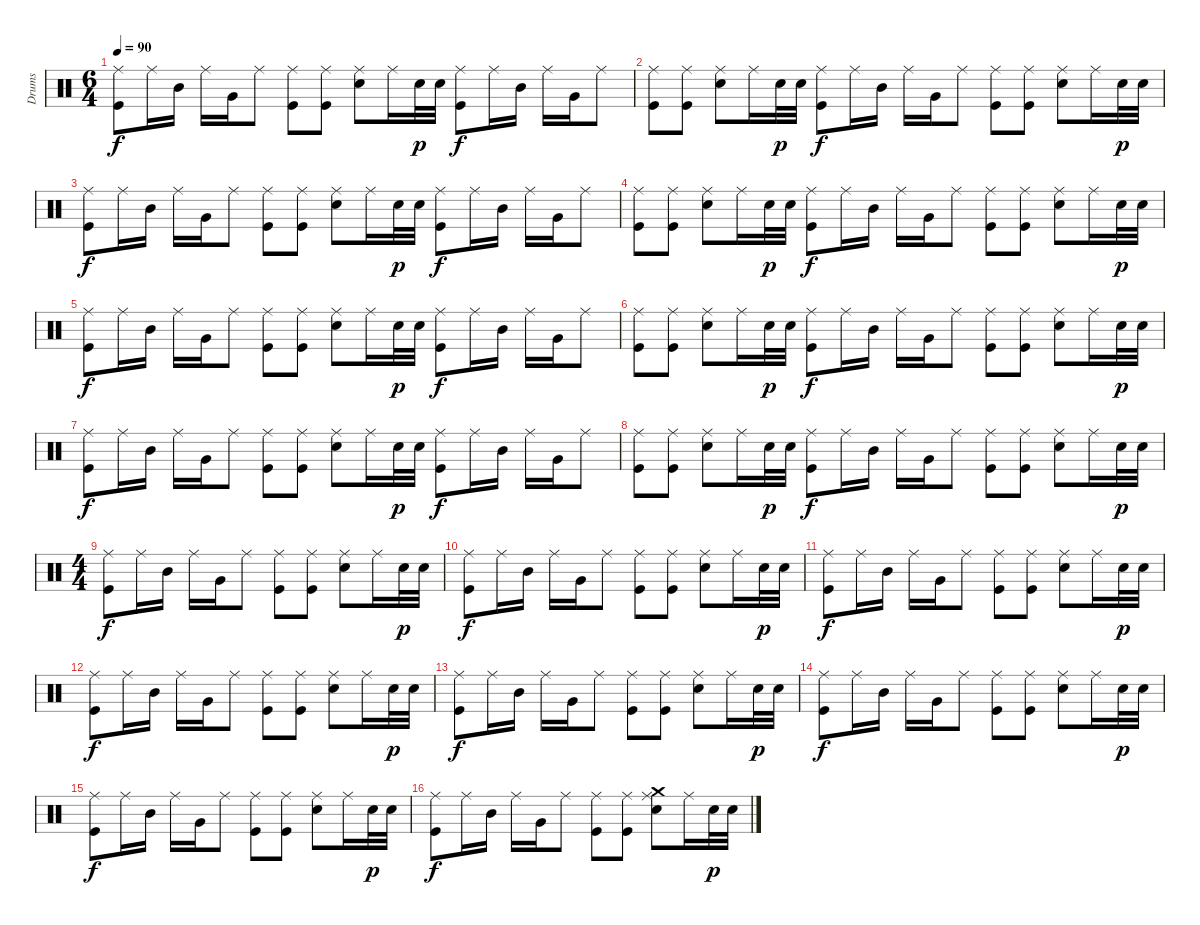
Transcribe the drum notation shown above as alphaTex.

\track ("Drums" "Drums") {instrument percussion}
\staff {score}
\articulation defaults
\ts (6 4)
\tempo 90
\clef neutral
\ks c
("Ride (middle)" "Kick (hit)").8{dy f volume 5} "Ride (middle)".16 "Mid Tom (hit)".16 "Ride (middle)".16 "Very Low Tom (hit)".16 "Ride (middle)".8 ("Ride (middle)" "Kick (hit)").8 ("Ride (middle)" "Kick (hit)").8 ("Ride (middle)" "Snare (hit) 2").8 "Ride (middle)".16 "Snare (hit) 2".32{dy p} "Snare (hit) 2".32 ("Ride (middle)" "Kick (hit)").8{dy f} "Ride (middle)".16 "Mid Tom (hit)".16 "Ride (middle)".16 "Very Low Tom (hit)".16 "Ride (middle)".8 |
("Ride (middle)" "Kick (hit)").8 ("Ride (middle)" "Kick (hit)").8 ("Ride (middle)" "Snare (hit) 2").8 "Ride (middle)".16 "Snare (hit) 2".32{dy p} "Snare (hit) 2".32 ("Ride (middle)" "Kick (hit)").8{dy f} "Ride (middle)".16 "Mid Tom (hit)".16 "Ride (middle)".16 "Very Low Tom (hit)".16 "Ride (middle)".8 ("Ride (middle)" "Kick (hit)").8 ("Ride (middle)" "Kick (hit)").8 ("Ride (middle)" "Snare (hit) 2").8 "Ride (middle)".16 "Snare (hit) 2".32{dy p} "Snare (hit) 2".32 |
("Ride (middle)" "Kick (hit)").8{dy f volume 13} "Ride (middle)".16 "Mid Tom (hit)".16 "Ride (middle)".16 "Very Low Tom (hit)".16 "Ride (middle)".8 ("Ride (middle)" "Kick (hit)").8 ("Ride (middle)" "Kick (hit)").8 ("Ride (middle)" "Snare (hit) 2").8 "Ride (middle)".16 "Snare (hit) 2".32{dy p} "Snare (hit) 2".32 ("Ride (middle)" "Kick (hit)").8{dy f} "Ride (middle)".16 "Mid Tom (hit)".16 "Ride (middle)".16 "Very Low Tom (hit)".16 "Ride (middle)".8 |
("Ride (middle)" "Kick (hit)").8 ("Ride (middle)" "Kick (hit)").8 ("Ride (middle)" "Snare (hit) 2").8 "Ride (middle)".16 "Snare (hit) 2".32{dy p} "Snare (hit) 2".32 ("Ride (middle)" "Kick (hit)").8{dy f} "Ride (middle)".16 "Mid Tom (hit)".16 "Ride (middle)".16 "Very Low Tom (hit)".16 "Ride (middle)".8 ("Ride (middle)" "Kick (hit)").8 ("Ride (middle)" "Kick (hit)").8 ("Ride (middle)" "Snare (hit) 2").8 "Ride (middle)".16 "Snare (hit) 2".32{dy p} "Snare (hit) 2".32 |
("Ride (middle)" "Kick (hit)").8{dy f} "Ride (middle)".16 "Mid Tom (hit)".16 "Ride (middle)".16 "Very Low Tom (hit)".16 "Ride (middle)".8 ("Ride (middle)" "Kick (hit)").8 ("Ride (middle)" "Kick (hit)").8 ("Ride (middle)" "Snare (hit) 2").8 "Ride (middle)".16 "Snare (hit) 2".32{dy p} "Snare (hit) 2".32 ("Ride (middle)" "Kick (hit)").8{dy f} "Ride (middle)".16 "Mid Tom (hit)".16 "Ride (middle)".16 "Very Low Tom (hit)".16 "Ride (middle)".8 |
("Ride (middle)" "Kick (hit)").8 ("Ride (middle)" "Kick (hit)").8 ("Ride (middle)" "Snare (hit) 2").8 "Ride (middle)".16 "Snare (hit) 2".32{dy p} "Snare (hit) 2".32 ("Ride (middle)" "Kick (hit)").8{dy f} "Ride (middle)".16 "Mid Tom (hit)".16 "Ride (middle)".16 "Very Low Tom (hit)".16 "Ride (middle)".8 ("Ride (middle)" "Kick (hit)").8 ("Ride (middle)" "Kick (hit)").8 ("Ride (middle)" "Snare (hit) 2").8 "Ride (middle)".16 "Snare (hit) 2".32{dy p} "Snare (hit) 2".32 |
("Ride (middle)" "Kick (hit)").8{dy f} "Ride (middle)".16 "Mid Tom (hit)".16 "Ride (middle)".16 "Very Low Tom (hit)".16 "Ride (middle)".8 ("Ride (middle)" "Kick (hit)").8 ("Ride (middle)" "Kick (hit)").8 ("Ride (middle)" "Snare (hit) 2").8 "Ride (middle)".16 "Snare (hit) 2".32{dy p} "Snare (hit) 2".32 ("Ride (middle)" "Kick (hit)").8{dy f} "Ride (middle)".16 "Mid Tom (hit)".16 "Ride (middle)".16 "Very Low Tom (hit)".16 "Ride (middle)".8 |
("Ride (middle)" "Kick (hit)").8 ("Ride (middle)" "Kick (hit)").8 ("Ride (middle)" "Snare (hit) 2").8 "Ride (middle)".16 "Snare (hit) 2".32{dy p} "Snare (hit) 2".32 ("Ride (middle)" "Kick (hit)").8{dy f} "Ride (middle)".16 "Mid Tom (hit)".16 "Ride (middle)".16 "Very Low Tom (hit)".16 "Ride (middle)".8 ("Ride (middle)" "Kick (hit)").8 ("Ride (middle)" "Kick (hit)").8 ("Ride (middle)" "Snare (hit) 2").8 "Ride (middle)".16 "Snare (hit) 2".32{dy p} "Snare (hit) 2".32 |
\ts (4 4)
("Ride (middle)" "Kick (hit)").8{dy f} "Ride (middle)".16 "Mid Tom (hit)".16 "Ride (middle)".16 "Very Low Tom (hit)".16 "Ride (middle)".8 ("Ride (middle)" "Kick (hit)").8 ("Ride (middle)" "Kick (hit)").8 ("Ride (middle)" "Snare (hit) 2").8 "Ride (middle)".16 "Snare (hit) 2".32{dy p} "Snare (hit) 2".32 |
("Ride (middle)" "Kick (hit)").8{dy f} "Ride (middle)".16 "Mid Tom (hit)".16 "Ride (middle)".16 "Very Low Tom (hit)".16 "Ride (middle)".8 ("Ride (middle)" "Kick (hit)").8 ("Ride (middle)" "Kick (hit)").8 ("Ride (middle)" "Snare (hit) 2").8 "Ride (middle)".16 "Snare (hit) 2".32{dy p} "Snare (hit) 2".32 |
("Ride (middle)" "Kick (hit)").8{dy f} "Ride (middle)".16 "Mid Tom (hit)".16 "Ride (middle)".16 "Very Low Tom (hit)".16 "Ride (middle)".8 ("Ride (middle)" "Kick (hit)").8 ("Ride (middle)" "Kick (hit)").8 ("Ride (middle)" "Snare (hit) 2").8 "Ride (middle)".16 "Snare (hit) 2".32{dy p} "Snare (hit) 2".32 |
("Ride (middle)" "Kick (hit)").8{dy f} "Ride (middle)".16 "Mid Tom (hit)".16 "Ride (middle)".16 "Very Low Tom (hit)".16 "Ride (middle)".8 ("Ride (middle)" "Kick (hit)").8 ("Ride (middle)" "Kick (hit)").8 ("Ride (middle)" "Snare (hit) 2").8 "Ride (middle)".16 "Snare (hit) 2".32{dy p} "Snare (hit) 2".32 |
("Ride (middle)" "Kick (hit)").8{dy f} "Ride (middle)".16 "Mid Tom (hit)".16 "Ride (middle)".16 "Very Low Tom (hit)".16 "Ride (middle)".8 ("Ride (middle)" "Kick (hit)").8 ("Ride (middle)" "Kick (hit)").8 ("Ride (middle)" "Snare (hit) 2").8 "Ride (middle)".16 "Snare (hit) 2".32{dy p} "Snare (hit) 2".32 |
("Ride (middle)" "Kick (hit)").8{dy f} "Ride (middle)".16 "Mid Tom (hit)".16 "Ride (middle)".16 "Very Low Tom (hit)".16 "Ride (middle)".8 ("Ride (middle)" "Kick (hit)").8 ("Ride (middle)" "Kick (hit)").8 ("Ride (middle)" "Snare (hit) 2").8 "Ride (middle)".16 "Snare (hit) 2".32{dy p} "Snare (hit) 2".32 |
("Ride (middle)" "Kick (hit)").8{dy f} "Ride (middle)".16 "Mid Tom (hit)".16 "Ride (middle)".16 "Very Low Tom (hit)".16 "Ride (middle)".8 ("Ride (middle)" "Kick (hit)").8 ("Ride (middle)" "Kick (hit)").8 ("Ride (middle)" "Snare (hit) 2").8 "Ride (middle)".16 "Snare (hit) 2".32{dy p} "Snare (hit) 2".32 |
("Ride (middle)" "Kick (hit)").8{dy f} "Ride (middle)".16 "Mid Tom (hit)".16 "Ride (middle)".16 "Very Low Tom (hit)".16 "Ride (middle)".8 ("Ride (middle)" "Kick (hit)").8 ("Ride (middle)" "Kick (hit)").8 ("Ride (middle)" "Crash medium (hit)" "Snare (hit) 2").8 "Ride (middle)".16 "Snare (hit) 2".32{dy p} "Snare (hit) 2".32
